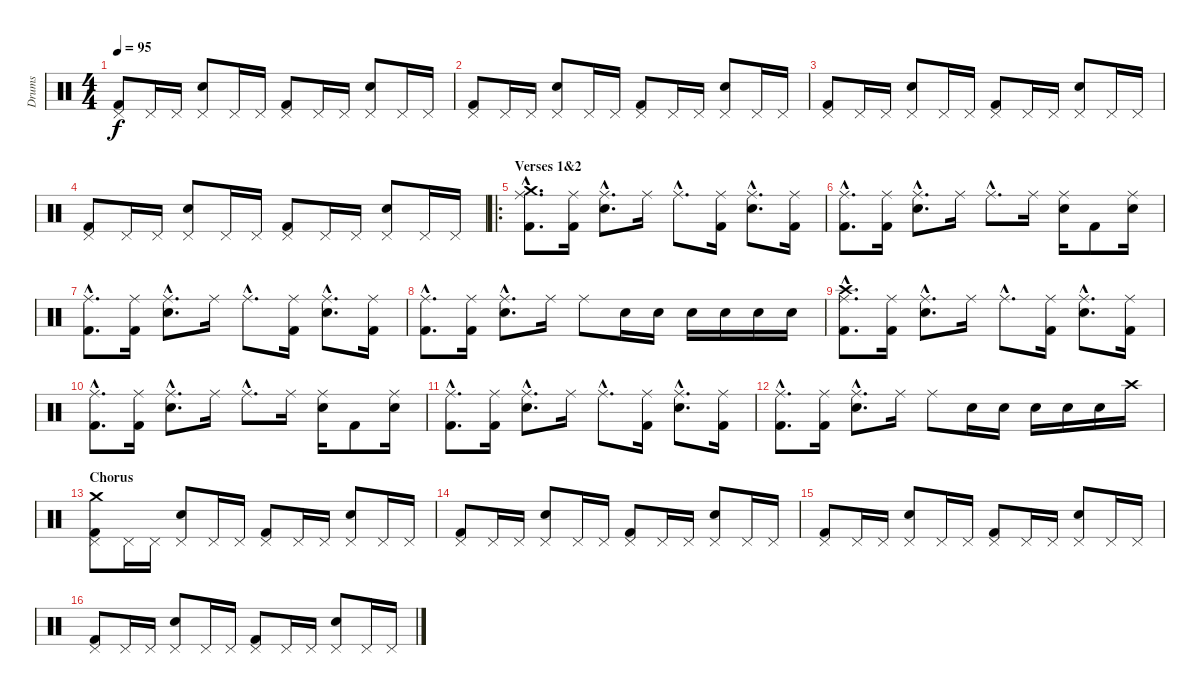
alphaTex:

\track ("Drums" "Drums") {instrument percussion}
\staff {score}
\articulation defaults
\ts (4 4)
\tempo 95
\clef neutral
\ks c
("Pedal Hi-Hat (hit)" "Kick (hit) 2").8{dy f} "Pedal Hi-Hat (hit)".16 "Pedal Hi-Hat (hit)".16 ("Pedal Hi-Hat (hit)" "Snare (hit) 2").8 "Pedal Hi-Hat (hit)".16 "Pedal Hi-Hat (hit)".16 ("Pedal Hi-Hat (hit)" "Kick (hit) 2").8 "Pedal Hi-Hat (hit)".16 "Pedal Hi-Hat (hit)".16 ("Pedal Hi-Hat (hit)" "Snare (hit) 2").8 "Pedal Hi-Hat (hit)".16 "Pedal Hi-Hat (hit)".16 |
("Pedal Hi-Hat (hit)" "Kick (hit) 2").8 "Pedal Hi-Hat (hit)".16 "Pedal Hi-Hat (hit)".16 ("Pedal Hi-Hat (hit)" "Snare (hit) 2").8 "Pedal Hi-Hat (hit)".16 "Pedal Hi-Hat (hit)".16 ("Pedal Hi-Hat (hit)" "Kick (hit) 2").8 "Pedal Hi-Hat (hit)".16 "Pedal Hi-Hat (hit)".16 ("Pedal Hi-Hat (hit)" "Snare (hit) 2").8 "Pedal Hi-Hat (hit)".16 "Pedal Hi-Hat (hit)".16 |
("Pedal Hi-Hat (hit)" "Kick (hit) 2").8 "Pedal Hi-Hat (hit)".16 "Pedal Hi-Hat (hit)".16 ("Pedal Hi-Hat (hit)" "Snare (hit) 2").8 "Pedal Hi-Hat (hit)".16 "Pedal Hi-Hat (hit)".16 ("Pedal Hi-Hat (hit)" "Kick (hit) 2").8 "Pedal Hi-Hat (hit)".16 "Pedal Hi-Hat (hit)".16 ("Pedal Hi-Hat (hit)" "Snare (hit) 2").8 "Pedal Hi-Hat (hit)".16 "Pedal Hi-Hat (hit)".16 |
("Pedal Hi-Hat (hit)" "Kick (hit) 2").8 "Pedal Hi-Hat (hit)".16 "Pedal Hi-Hat (hit)".16 ("Pedal Hi-Hat (hit)" "Snare (hit) 2").8 "Pedal Hi-Hat (hit)".16 "Pedal Hi-Hat (hit)".16 ("Pedal Hi-Hat (hit)" "Kick (hit) 2").8 "Pedal Hi-Hat (hit)".16 "Pedal Hi-Hat (hit)".16 ("Pedal Hi-Hat (hit)" "Snare (hit) 2").8 "Pedal Hi-Hat (hit)".16 "Pedal Hi-Hat (hit)".16 |
\ro
\section ("" "Verses 1&2")
("Ride (middle)"{hac} "Crash medium (hit)"{hac} "Kick (hit) 2"{hac}).8{d} ("Ride (middle)" "Kick (hit) 2").16 ("Ride (middle)"{hac} "Snare (hit) 2"{hac}).8{d} "Ride (middle)".16 "Ride (middle)"{hac}.8{d} ("Ride (middle)" "Kick (hit) 2").16 ("Ride (middle)"{hac} "Snare (hit) 2"{hac}).8{d} ("Ride (middle)" "Kick (hit) 2").16 |
("Ride (middle)"{hac} "Kick (hit) 2"{hac}).8{d} ("Ride (middle)" "Kick (hit) 2").16 ("Ride (middle)"{hac} "Snare (hit) 2"{hac}).8{d} "Ride (middle)".16 "Ride (middle)"{hac}.8{d} "Ride (middle)".16 ("Ride (middle)" "Snare (hit) 2").16 "Kick (hit) 2".8 ("Ride (middle)" "Snare (hit) 2").16 |
("Ride (middle)"{hac} "Kick (hit) 2"{hac}).8{d} ("Ride (middle)" "Kick (hit) 2").16 ("Ride (middle)"{hac} "Snare (hit) 2"{hac}).8{d} "Ride (middle)".16 "Ride (middle)"{hac}.8{d} ("Ride (middle)" "Kick (hit) 2").16 ("Ride (middle)"{hac} "Snare (hit) 2"{hac}).8{d} ("Ride (middle)" "Kick (hit) 2").16 |
("Ride (middle)"{hac} "Kick (hit) 2"{hac}).8{d} ("Ride (middle)" "Kick (hit) 2").16 ("Ride (middle)"{hac} "Snare (hit) 2"{hac}).8{d} "Ride (middle)".16 "Ride (middle)".8 "Snare (hit) 2".16 "Snare (hit) 2".16 "Snare (hit) 2".16 "Snare (hit) 2".16 "Snare (hit) 2".16 "Snare (hit) 2".16 |
("Ride (middle)"{hac} "Crash high (hit)"{hac} "Kick (hit) 2"{hac}).8{d} ("Ride (middle)" "Kick (hit) 2").16 ("Ride (middle)"{hac} "Snare (hit) 2"{hac}).8{d} "Ride (middle)".16 "Ride (middle)"{hac}.8{d} ("Ride (middle)" "Kick (hit) 2").16 ("Ride (middle)"{hac} "Snare (hit) 2"{hac}).8{d} ("Ride (middle)" "Kick (hit) 2").16 |
("Ride (middle)"{hac} "Kick (hit) 2"{hac}).8{d} ("Ride (middle)" "Kick (hit) 2").16 ("Ride (middle)"{hac} "Snare (hit) 2"{hac}).8{d} "Ride (middle)".16 "Ride (middle)"{hac}.8{d} "Ride (middle)".16 ("Ride (middle)" "Snare (hit) 2").16 "Kick (hit) 2".8 ("Ride (middle)" "Snare (hit) 2").16 |
("Ride (middle)"{hac} "Kick (hit) 2"{hac}).8{d} ("Ride (middle)" "Kick (hit) 2").16 ("Ride (middle)"{hac} "Snare (hit) 2"{hac}).8{d} "Ride (middle)".16 "Ride (middle)"{hac}.8{d} ("Ride (middle)" "Kick (hit) 2").16 ("Ride (middle)"{hac} "Snare (hit) 2"{hac}).8{d} ("Ride (middle)" "Kick (hit) 2").16 |
("Ride (middle)"{hac} "Kick (hit) 2"{hac}).8{d} ("Ride (middle)" "Kick (hit) 2").16 ("Ride (middle)"{hac} "Snare (hit) 2"{hac}).8{d} "Ride (middle)".16 "Ride (middle)".8 "Snare (hit) 2".16 "Snare (hit) 2".16 "Snare (hit) 2".16 "Snare (hit) 2".16 "Snare (hit) 2".16 "Crash high (hit)".16 |
\section ("" "Chorus")
("Crash medium (hit)" "Pedal Hi-Hat (hit)" "Kick (hit) 2").8 "Pedal Hi-Hat (hit)".16 "Pedal Hi-Hat (hit)".16 ("Pedal Hi-Hat (hit)" "Snare (hit) 2").8 "Pedal Hi-Hat (hit)".16 "Pedal Hi-Hat (hit)".16 ("Pedal Hi-Hat (hit)" "Kick (hit) 2").8 "Pedal Hi-Hat (hit)".16 "Pedal Hi-Hat (hit)".16 ("Pedal Hi-Hat (hit)" "Snare (hit) 2").8 "Pedal Hi-Hat (hit)".16 "Pedal Hi-Hat (hit)".16 |
("Pedal Hi-Hat (hit)" "Kick (hit) 2").8 "Pedal Hi-Hat (hit)".16 "Pedal Hi-Hat (hit)".16 ("Pedal Hi-Hat (hit)" "Snare (hit) 2").8 "Pedal Hi-Hat (hit)".16 "Pedal Hi-Hat (hit)".16 ("Pedal Hi-Hat (hit)" "Kick (hit) 2").8 "Pedal Hi-Hat (hit)".16 "Pedal Hi-Hat (hit)".16 ("Pedal Hi-Hat (hit)" "Snare (hit) 2").8 "Pedal Hi-Hat (hit)".16 "Pedal Hi-Hat (hit)".16 |
("Pedal Hi-Hat (hit)" "Kick (hit) 2").8 "Pedal Hi-Hat (hit)".16 "Pedal Hi-Hat (hit)".16 ("Pedal Hi-Hat (hit)" "Snare (hit) 2").8 "Pedal Hi-Hat (hit)".16 "Pedal Hi-Hat (hit)".16 ("Pedal Hi-Hat (hit)" "Kick (hit) 2").8 "Pedal Hi-Hat (hit)".16 "Pedal Hi-Hat (hit)".16 ("Pedal Hi-Hat (hit)" "Snare (hit) 2").8 "Pedal Hi-Hat (hit)".16 "Pedal Hi-Hat (hit)".16 |
("Pedal Hi-Hat (hit)" "Kick (hit) 2").8 "Pedal Hi-Hat (hit)".16 "Pedal Hi-Hat (hit)".16 ("Pedal Hi-Hat (hit)" "Snare (hit) 2").8 "Pedal Hi-Hat (hit)".16 "Pedal Hi-Hat (hit)".16 ("Pedal Hi-Hat (hit)" "Kick (hit) 2").8 "Pedal Hi-Hat (hit)".16 "Pedal Hi-Hat (hit)".16 ("Pedal Hi-Hat (hit)" "Snare (hit) 2").8 "Pedal Hi-Hat (hit)".16 "Pedal Hi-Hat (hit)".16
